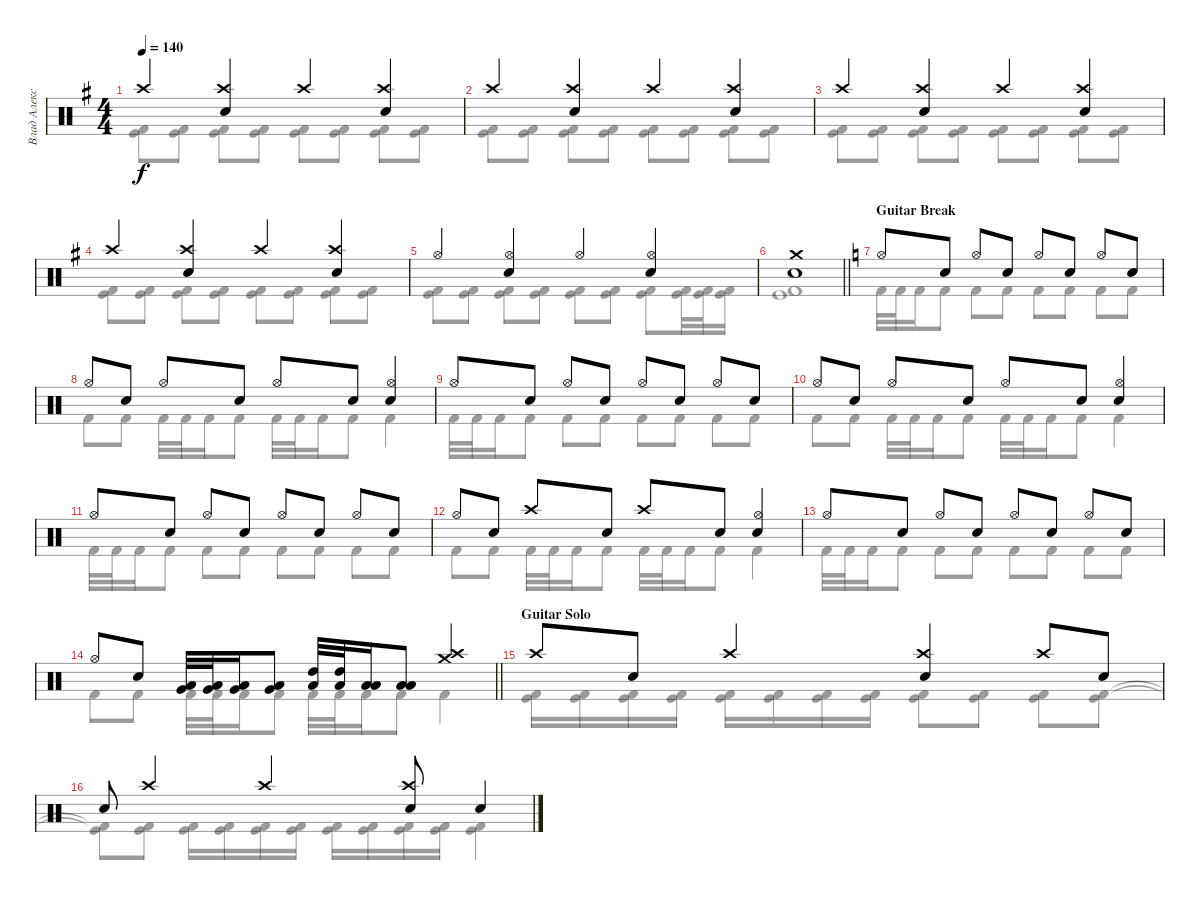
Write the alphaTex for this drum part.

\track ("Влад Алексеенко" "Влад Алекс") {instrument percussion}
\staff {score}
\articulation defaults
\voice
\ts (4 4)
\tempo 140
\clef neutral
\ks g "Crash high (hit)".4{dy f}
("Electric Snare (hit)" "Crash high (hit)").4 "Crash high (hit)".4 ("Electric Snare (hit)" "Crash high (hit)").4 |
"Crash high (hit)".4 ("Electric Snare (hit)" "Crash high (hit)").4 "Crash high (hit)".4 ("Electric Snare (hit)" "Crash high (hit)").4 |
"Crash high (hit)".4 ("Electric Snare (hit)" "Crash high (hit)").4 "Crash high (hit)".4 ("Electric Snare (hit)" "Crash high (hit)").4 |
"Crash high (hit)".4 ("Electric Snare (hit)" "Crash high (hit)").4 "Crash high (hit)".4 ("Electric Snare (hit)" "Crash high (hit)").4 |
"Hi-Hat (open)".4 ("Electric Snare (hit)" "Hi-Hat (open)").4 "Hi-Hat (open)".4 ("Electric Snare (hit)" "Hi-Hat (open)").4 |
\barLineRight lightlight
("Electric Snare (hit)" "Crash medium (hit)").1 |
\section ("" "Guitar Break")
\ks c "Hi-Hat (open)".8 "Electric Snare (hit)".8 "Hi-Hat (open)".8 "Electric Snare (hit)".8 "Hi-Hat (open)".8 "Electric Snare (hit)".8 "Hi-Hat (open)".8 "Electric Snare (hit)".8
|
"Hi-Hat (open)".8 "Electric Snare (hit)".8 "Hi-Hat (open)".8 "Electric Snare (hit)".8 "Hi-Hat (open)".8 "Electric Snare (hit)".8 ("Electric Snare (hit)" "Hi-Hat (open)").4 |
"Hi-Hat (open)".8 "Electric Snare (hit)".8 "Hi-Hat (open)".8 "Electric Snare (hit)".8 "Hi-Hat (open)".8 "Electric Snare (hit)".8 "Hi-Hat (open)".8 "Electric Snare (hit)".8 |
"Hi-Hat (open)".8 "Electric Snare (hit)".8 "Hi-Hat (open)".8 "Electric Snare (hit)".8 "Hi-Hat (open)".8 "Electric Snare (hit)".8 ("Electric Snare (hit)" "Hi-Hat (open)").4 |
"Hi-Hat (open)".8 "Electric Snare (hit)".8 "Hi-Hat (open)".8 "Electric Snare (hit)".8 "Hi-Hat (open)".8 "Electric Snare (hit)".8 "Hi-Hat (open)".8 "Electric Snare (hit)".8 |
"Hi-Hat (open)".8 "Electric Snare (hit)".8 "Crash high (hit)".8 "Electric Snare (hit)".8 "Crash high (hit)".8 "Electric Snare (hit)".8 ("Electric Snare (hit)" "Hi-Hat (open)").4 |
"Hi-Hat (open)".8 "Electric Snare (hit)".8 "Hi-Hat (open)".8 "Electric Snare (hit)".8 "Hi-Hat (open)".8 "Electric Snare (hit)".8 "Hi-Hat (open)".8 "Electric Snare (hit)".8 |
\barLineRight lightlight "Hi-Hat (open)".8 "Electric Snare (hit)".8
("Low Tom (hit)" "Very Low Tom (hit)").32 ("Low Tom (hit)" "Very Low Tom (hit)").32 ("Low Tom (hit)" "Very Low Tom (hit)").16 ("Low Tom (hit)" "Very Low Tom (hit)").8 ("High Tom (hit)" "Low Tom (hit)").32 ("High Tom (hit)" "Low Tom (hit)").32 ("Low Tom (hit)" "Low Tom (hit)").16 ("Low Tom (hit)" "Low Tom (hit)").8 ("Crash medium (hit)" "Crash high (hit)").4 |
\section ("" "Guitar Solo")
"Crash high (hit)".8 "Electric Snare (hit)".8 "Crash high (hit)".4 ("Electric Snare (hit)" "Crash high (hit)").4 "Crash high (hit)".8 "Electric Snare (hit)".8 |
"Electric Snare (hit)".8 "Crash high (hit)".4 "Crash high (hit)".4 ("Electric Snare (hit)" "Crash high (hit)").8 "Electric Snare (hit)".4
\voice
\clef neutral
\ottava regular
\simile none
\ks g
("Kick (hit) 2" "Kick (hit)").8{dy f} ("Kick (hit) 2" "Kick (hit)").8 ("Kick (hit) 2" "Kick (hit)").8 ("Kick (hit) 2" "Kick (hit)").8 ("Kick (hit) 2" "Kick (hit)").8 ("Kick (hit) 2" "Kick (hit)").8 ("Kick (hit) 2" "Kick (hit)").8 ("Kick (hit) 2" "Kick (hit)").8 |
("Kick (hit) 2" "Kick (hit)").8 ("Kick (hit) 2" "Kick (hit)").8 ("Kick (hit) 2" "Kick (hit)").8 ("Kick (hit) 2" "Kick (hit)").8 ("Kick (hit) 2" "Kick (hit)").8 ("Kick (hit) 2" "Kick (hit)").8 ("Kick (hit) 2" "Kick (hit)").8 ("Kick (hit) 2" "Kick (hit)").8 |
("Kick (hit) 2" "Kick (hit)").8 ("Kick (hit) 2" "Kick (hit)").8 ("Kick (hit) 2" "Kick (hit)").8 ("Kick (hit) 2" "Kick (hit)").8 ("Kick (hit) 2" "Kick (hit)").8 ("Kick (hit) 2" "Kick (hit)").8 ("Kick (hit) 2" "Kick (hit)").8 ("Kick (hit) 2" "Kick (hit)").8 |
("Kick (hit) 2" "Kick (hit)").8 ("Kick (hit) 2" "Kick (hit)").8 ("Kick (hit) 2" "Kick (hit)").8 ("Kick (hit) 2" "Kick (hit)").8 ("Kick (hit) 2" "Kick (hit)").8 ("Kick (hit) 2" "Kick (hit)").8 ("Kick (hit) 2" "Kick (hit)").8 ("Kick (hit) 2" "Kick (hit)").8 |
("Kick (hit) 2" "Kick (hit)").8 ("Kick (hit) 2" "Kick (hit)").8 ("Kick (hit) 2" "Kick (hit)").8 ("Kick (hit) 2" "Kick (hit)").8 ("Kick (hit) 2" "Kick (hit)").8 ("Kick (hit) 2" "Kick (hit)").8 ("Kick (hit) 2" "Kick (hit)").8 ("Kick (hit) 2" "Kick (hit)").32 ("Kick (hit) 2" "Kick (hit)").32 ("Kick (hit) 2" "Kick (hit)").16 |
\barLineRight lightlight
("Kick (hit) 2" "Kick (hit)").1 |
\ks c "Kick (hit) 2".32 "Kick (hit) 2".32 "Kick (hit) 2".16 "Kick (hit) 2".8 "Kick (hit) 2".8 "Kick (hit) 2".8 "Kick (hit) 2".8 "Kick (hit) 2".8 "Kick (hit) 2".8 "Kick (hit) 2".8
|
"Kick (hit) 2".8 "Kick (hit) 2".8 "Kick (hit) 2".32 "Kick (hit) 2".32 "Kick (hit) 2".16 "Kick (hit) 2".8 "Kick (hit) 2".32 "Kick (hit) 2".32 "Kick (hit) 2".16 "Kick (hit) 2".8 "Kick (hit) 2".4 |
"Kick (hit) 2".32 "Kick (hit) 2".32 "Kick (hit) 2".16 "Kick (hit) 2".8 "Kick (hit) 2".8 "Kick (hit) 2".8 "Kick (hit) 2".8 "Kick (hit) 2".8 "Kick (hit) 2".8 "Kick (hit) 2".8 |
"Kick (hit) 2".8 "Kick (hit) 2".8 "Kick (hit) 2".32 "Kick (hit) 2".32 "Kick (hit) 2".16 "Kick (hit) 2".8 "Kick (hit) 2".32 "Kick (hit) 2".32 "Kick (hit) 2".16 "Kick (hit) 2".8 "Kick (hit) 2".4 |
"Kick (hit) 2".32 "Kick (hit) 2".32 "Kick (hit) 2".16 "Kick (hit) 2".8 "Kick (hit) 2".8 "Kick (hit) 2".8 "Kick (hit) 2".8 "Kick (hit) 2".8 "Kick (hit) 2".8 "Kick (hit) 2".8 |
"Kick (hit) 2".8 "Kick (hit) 2".8 "Kick (hit) 2".32 "Kick (hit) 2".32 "Kick (hit) 2".16 "Kick (hit) 2".8 "Kick (hit) 2".32 "Kick (hit) 2".32 "Kick (hit) 2".16 "Kick (hit) 2".8 "Kick (hit) 2".4 |
"Kick (hit) 2".32 "Kick (hit) 2".32 "Kick (hit) 2".16 "Kick (hit) 2".8 "Kick (hit) 2".8 "Kick (hit) 2".8 "Kick (hit) 2".8 "Kick (hit) 2".8 "Kick (hit) 2".8 "Kick (hit) 2".8 |
\barLineRight lightlight "Kick (hit) 2".8 "Kick (hit) 2".8 "Kick (hit) 2".32 "Kick (hit) 2".32 "Kick (hit) 2".16 "Kick (hit) 2".8 "Kick (hit) 2".32 "Kick (hit) 2".32 "Kick (hit) 2".16 "Kick (hit) 2".8 "Kick (hit) 2".4
|
("Kick (hit) 2" "Kick (hit)").16 ("Kick (hit) 2" "Kick (hit)").16 ("Kick (hit) 2" "Kick (hit)").16 ("Kick (hit) 2" "Kick (hit)").16 ("Kick (hit) 2" "Kick (hit)").16 ("Kick (hit) 2" "Kick (hit)").16 ("Kick (hit) 2" "Kick (hit)").16 ("Kick (hit) 2" "Kick (hit)").16 ("Kick (hit) 2" "Kick (hit)").8 ("Kick (hit) 2" "Kick (hit)").8 ("Kick (hit) 2" "Kick (hit)").8 ("Kick (hit) 2" "Kick (hit)").8 |
("Kick (hit) 2"{t} "Kick (hit)"{t}).8 ("Kick (hit) 2" "Kick (hit)").8 ("Kick (hit) 2" "Kick (hit)").16 ("Kick (hit) 2" "Kick (hit)").16 ("Kick (hit) 2" "Kick (hit)").16 ("Kick (hit) 2" "Kick (hit)").16 ("Kick (hit) 2" "Kick (hit)").16 ("Kick (hit) 2" "Kick (hit)").16 ("Kick (hit) 2" "Kick (hit)").16 ("Kick (hit) 2" "Kick (hit)").16 ("Kick (hit) 2" "Kick (hit)").4
